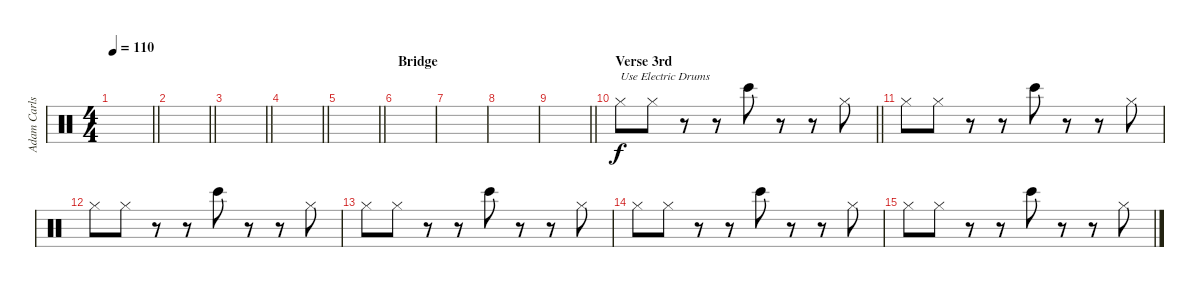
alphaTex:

\track ("Adam Carlson(Electric Drums)" "Adam Carls") {instrument percussion}
\staff {score}
\articulation defaults
\ts (4 4)
\tempo 110
\clef neutral
\barLineRight lightlight
\ks c
|
\barLineRight lightlight
|
\barLineRight lightlight
|
\barLineRight lightlight
|
\barLineRight lightlight
|
\section ("" "Bridge")
|
|
|
\barLineRight lightlight
|
\section ("" "Verse 3rd")
\barLineRight lightlight "Hi-Hat (closed)".8{txt "Use Electric Drums"} "Hi-Hat (closed)".8
r.8 r.8 "Bongo High (hit)".8 r.8 r.8 "Hi-Hat (closed)".8 |
"Hi-Hat (closed)".8 "Hi-Hat (closed)".8 r.8 r.8 "Bongo High (hit)".8 r.8 r.8 "Hi-Hat (closed)".8 |
"Hi-Hat (closed)".8 "Hi-Hat (closed)".8 r.8 r.8 "Bongo High (hit)".8 r.8 r.8 "Hi-Hat (closed)".8 |
"Hi-Hat (closed)".8 "Hi-Hat (closed)".8 r.8 r.8 "Bongo High (hit)".8 r.8 r.8 "Hi-Hat (closed)".8 |
"Hi-Hat (closed)".8 "Hi-Hat (closed)".8 r.8 r.8 "Bongo High (hit)".8 r.8 r.8 "Hi-Hat (closed)".8 |
"Hi-Hat (closed)".8 "Hi-Hat (closed)".8 r.8 r.8 "Bongo High (hit)".8 r.8 r.8 "Hi-Hat (closed)".8
